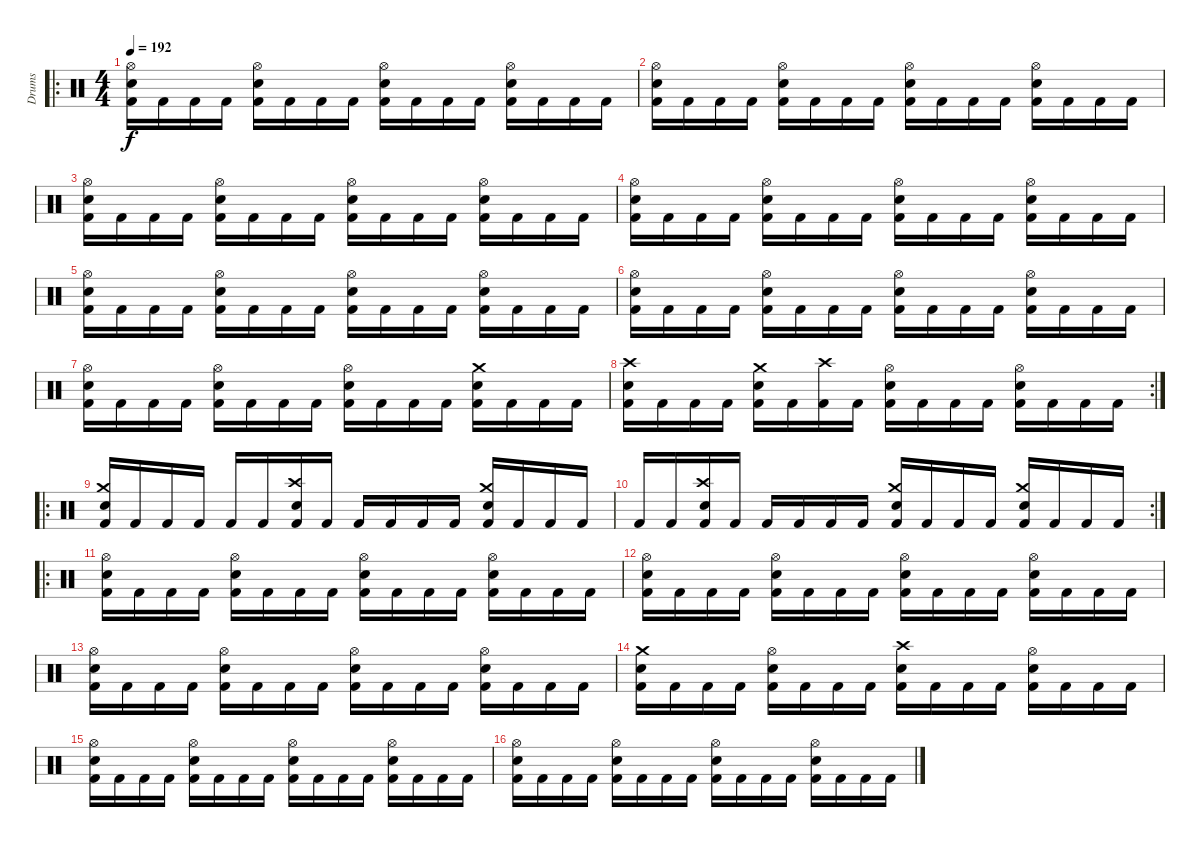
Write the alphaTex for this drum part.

\track ("Drums" "Drums") {instrument percussion}
\staff {score}
\articulation defaults
\ro
\ts (4 4)
\tempo 192
\clef neutral
\ks c
("Hi-Hat (open)" "Snare (hit) 2" "Kick (hit) 2").16{dy f} "Kick (hit) 2".16 "Kick (hit) 2".16 "Kick (hit) 2".16 ("Hi-Hat (open)" "Snare (hit) 2" "Kick (hit) 2").16 "Kick (hit) 2".16 "Kick (hit) 2".16 "Kick (hit) 2".16 ("Hi-Hat (open)" "Snare (hit) 2" "Kick (hit) 2").16 "Kick (hit) 2".16 "Kick (hit) 2".16 "Kick (hit) 2".16 ("Hi-Hat (open)" "Snare (hit) 2" "Kick (hit) 2").16 "Kick (hit) 2".16 "Kick (hit) 2".16 "Kick (hit) 2".16 |
("Hi-Hat (open)" "Snare (hit) 2" "Kick (hit) 2").16 "Kick (hit) 2".16 "Kick (hit) 2".16 "Kick (hit) 2".16 ("Hi-Hat (open)" "Snare (hit) 2" "Kick (hit) 2").16 "Kick (hit) 2".16 "Kick (hit) 2".16 "Kick (hit) 2".16 ("Hi-Hat (open)" "Snare (hit) 2" "Kick (hit) 2").16 "Kick (hit) 2".16 "Kick (hit) 2".16 "Kick (hit) 2".16 ("Hi-Hat (open)" "Snare (hit) 2" "Kick (hit) 2").16 "Kick (hit) 2".16 "Kick (hit) 2".16 "Kick (hit) 2".16 |
("Hi-Hat (open)" "Snare (hit) 2" "Kick (hit) 2").16 "Kick (hit) 2".16 "Kick (hit) 2".16 "Kick (hit) 2".16 ("Hi-Hat (open)" "Snare (hit) 2" "Kick (hit) 2").16 "Kick (hit) 2".16 "Kick (hit) 2".16 "Kick (hit) 2".16 ("Hi-Hat (open)" "Snare (hit) 2" "Kick (hit) 2").16 "Kick (hit) 2".16 "Kick (hit) 2".16 "Kick (hit) 2".16 ("Hi-Hat (open)" "Snare (hit) 2" "Kick (hit) 2").16 "Kick (hit) 2".16 "Kick (hit) 2".16 "Kick (hit) 2".16 |
("Hi-Hat (open)" "Snare (hit) 2" "Kick (hit) 2").16 "Kick (hit) 2".16 "Kick (hit) 2".16 "Kick (hit) 2".16 ("Hi-Hat (open)" "Snare (hit) 2" "Kick (hit) 2").16 "Kick (hit) 2".16 "Kick (hit) 2".16 "Kick (hit) 2".16 ("Hi-Hat (open)" "Snare (hit) 2" "Kick (hit) 2").16 "Kick (hit) 2".16 "Kick (hit) 2".16 "Kick (hit) 2".16 ("Hi-Hat (open)" "Snare (hit) 2" "Kick (hit) 2").16 "Kick (hit) 2".16 "Kick (hit) 2".16 "Kick (hit) 2".16 |
("Hi-Hat (open)" "Snare (hit) 2" "Kick (hit) 2").16 "Kick (hit) 2".16 "Kick (hit) 2".16 "Kick (hit) 2".16 ("Hi-Hat (open)" "Snare (hit) 2" "Kick (hit) 2").16 "Kick (hit) 2".16 "Kick (hit) 2".16 "Kick (hit) 2".16 ("Hi-Hat (open)" "Snare (hit) 2" "Kick (hit) 2").16 "Kick (hit) 2".16 "Kick (hit) 2".16 "Kick (hit) 2".16 ("Hi-Hat (open)" "Snare (hit) 2" "Kick (hit) 2").16 "Kick (hit) 2".16 "Kick (hit) 2".16 "Kick (hit) 2".16 |
("Hi-Hat (open)" "Snare (hit) 2" "Kick (hit) 2").16 "Kick (hit) 2".16 "Kick (hit) 2".16 "Kick (hit) 2".16 ("Hi-Hat (open)" "Snare (hit) 2" "Kick (hit) 2").16 "Kick (hit) 2".16 "Kick (hit) 2".16 "Kick (hit) 2".16 ("Hi-Hat (open)" "Snare (hit) 2" "Kick (hit) 2").16 "Kick (hit) 2".16 "Kick (hit) 2".16 "Kick (hit) 2".16 ("Hi-Hat (open)" "Snare (hit) 2" "Kick (hit) 2").16 "Kick (hit) 2".16 "Kick (hit) 2".16 "Kick (hit) 2".16 |
("Hi-Hat (open)" "Snare (hit) 2" "Kick (hit) 2").16 "Kick (hit) 2".16 "Kick (hit) 2".16 "Kick (hit) 2".16 ("Hi-Hat (open)" "Snare (hit) 2" "Kick (hit) 2").16 "Kick (hit) 2".16 "Kick (hit) 2".16 "Kick (hit) 2".16 ("Hi-Hat (open)" "Snare (hit) 2" "Kick (hit) 2").16 "Kick (hit) 2".16 "Kick (hit) 2".16 "Kick (hit) 2".16 ("Crash medium (hit)" "Snare (hit) 2" "Kick (hit) 2").16 "Kick (hit) 2".16 "Kick (hit) 2".16 "Kick (hit) 2".16 |
\rc 2
("Crash high (hit)" "Snare (hit) 2" "Kick (hit) 2").16 "Kick (hit) 2".16 "Kick (hit) 2".16 "Kick (hit) 2".16 ("Crash medium (hit)" "Snare (hit) 2" "Kick (hit) 2").16 "Kick (hit) 2".16 ("Crash high (hit)" "Kick (hit) 2").16 "Kick (hit) 2".16 ("Hi-Hat (open)" "Snare (hit) 2" "Kick (hit) 2").16 "Kick (hit) 2".16 "Kick (hit) 2".16 "Kick (hit) 2".16 ("Hi-Hat (open)" "Snare (hit) 2" "Kick (hit) 2").16 "Kick (hit) 2".16 "Kick (hit) 2".16 "Kick (hit) 2".16 |
\ro
("Crash medium (hit)" "Electric Snare (hit)" "Kick (hit) 2").16 "Kick (hit) 2".16 "Kick (hit) 2".16 "Kick (hit) 2".16 "Kick (hit) 2".16 "Kick (hit) 2".16 ("Crash high (hit)" "Electric Snare (hit)" "Kick (hit) 2").16 "Kick (hit) 2".16 "Kick (hit) 2".16 "Kick (hit) 2".16 "Kick (hit) 2".16 "Kick (hit) 2".16 ("Crash medium (hit)" "Electric Snare (hit)" "Kick (hit) 2").16 "Kick (hit) 2".16 "Kick (hit) 2".16 "Kick (hit) 2".16 |
\rc 2 "Kick (hit) 2".16 "Kick (hit) 2".16
("Crash high (hit)" "Electric Snare (hit)" "Kick (hit) 2").16 "Kick (hit) 2".16 "Kick (hit) 2".16 "Kick (hit) 2".16 "Kick (hit) 2".16 "Kick (hit) 2".16 ("Crash medium (hit)" "Electric Snare (hit)" "Kick (hit) 2").16 "Kick (hit) 2".16 "Kick (hit) 2".16 "Kick (hit) 2".16 ("Crash medium (hit)" "Electric Snare (hit)" "Kick (hit) 2").16 "Kick (hit) 2".16 "Kick (hit) 2".16 "Kick (hit) 2".16 |
\ro
("Hi-Hat (open)" "Snare (hit) 2" "Kick (hit) 2").16 "Kick (hit) 2".16 "Kick (hit) 2".16 "Kick (hit) 2".16 ("Hi-Hat (open)" "Snare (hit) 2" "Kick (hit) 2").16 "Kick (hit) 2".16 "Kick (hit) 2".16 "Kick (hit) 2".16 ("Hi-Hat (open)" "Snare (hit) 2" "Kick (hit) 2").16 "Kick (hit) 2".16 "Kick (hit) 2".16 "Kick (hit) 2".16 ("Hi-Hat (open)" "Snare (hit) 2" "Kick (hit) 2").16 "Kick (hit) 2".16 "Kick (hit) 2".16 "Kick (hit) 2".16 |
("Hi-Hat (open)" "Snare (hit) 2" "Kick (hit) 2").16 "Kick (hit) 2".16 "Kick (hit) 2".16 "Kick (hit) 2".16 ("Hi-Hat (open)" "Snare (hit) 2" "Kick (hit) 2").16 "Kick (hit) 2".16 "Kick (hit) 2".16 "Kick (hit) 2".16 ("Hi-Hat (open)" "Snare (hit) 2" "Kick (hit) 2").16 "Kick (hit) 2".16 "Kick (hit) 2".16 "Kick (hit) 2".16 ("Hi-Hat (open)" "Snare (hit) 2" "Kick (hit) 2").16 "Kick (hit) 2".16 "Kick (hit) 2".16 "Kick (hit) 2".16 |
("Hi-Hat (open)" "Snare (hit) 2" "Kick (hit) 2").16 "Kick (hit) 2".16 "Kick (hit) 2".16 "Kick (hit) 2".16 ("Hi-Hat (open)" "Snare (hit) 2" "Kick (hit) 2").16 "Kick (hit) 2".16 "Kick (hit) 2".16 "Kick (hit) 2".16 ("Hi-Hat (open)" "Snare (hit) 2" "Kick (hit) 2").16 "Kick (hit) 2".16 "Kick (hit) 2".16 "Kick (hit) 2".16 ("Hi-Hat (open)" "Snare (hit) 2" "Kick (hit) 2").16 "Kick (hit) 2".16 "Kick (hit) 2".16 "Kick (hit) 2".16 |
("Crash medium (hit)" "Snare (hit) 2" "Kick (hit) 2").16 "Kick (hit) 2".16 "Kick (hit) 2".16 "Kick (hit) 2".16 ("Hi-Hat (open)" "Snare (hit) 2" "Kick (hit) 2").16 "Kick (hit) 2".16 "Kick (hit) 2".16 "Kick (hit) 2".16 ("Crash high (hit)" "Snare (hit) 2" "Kick (hit) 2").16 "Kick (hit) 2".16 "Kick (hit) 2".16 "Kick (hit) 2".16 ("Hi-Hat (open)" "Snare (hit) 2" "Kick (hit) 2").16 "Kick (hit) 2".16 "Kick (hit) 2".16 "Kick (hit) 2".16 |
("Hi-Hat (open)" "Snare (hit) 2" "Kick (hit) 2").16 "Kick (hit) 2".16 "Kick (hit) 2".16 "Kick (hit) 2".16 ("Hi-Hat (open)" "Snare (hit) 2" "Kick (hit) 2").16 "Kick (hit) 2".16 "Kick (hit) 2".16 "Kick (hit) 2".16 ("Hi-Hat (open)" "Snare (hit) 2" "Kick (hit) 2").16 "Kick (hit) 2".16 "Kick (hit) 2".16 "Kick (hit) 2".16 ("Hi-Hat (open)" "Snare (hit) 2" "Kick (hit) 2").16 "Kick (hit) 2".16 "Kick (hit) 2".16 "Kick (hit) 2".16 |
("Hi-Hat (open)" "Snare (hit) 2" "Kick (hit) 2").16 "Kick (hit) 2".16 "Kick (hit) 2".16 "Kick (hit) 2".16 ("Hi-Hat (open)" "Snare (hit) 2" "Kick (hit) 2").16 "Kick (hit) 2".16 "Kick (hit) 2".16 "Kick (hit) 2".16 ("Hi-Hat (open)" "Snare (hit) 2" "Kick (hit) 2").16 "Kick (hit) 2".16 "Kick (hit) 2".16 "Kick (hit) 2".16 ("Hi-Hat (open)" "Snare (hit) 2" "Kick (hit) 2").16 "Kick (hit) 2".16 "Kick (hit) 2".16 "Kick (hit) 2".16
